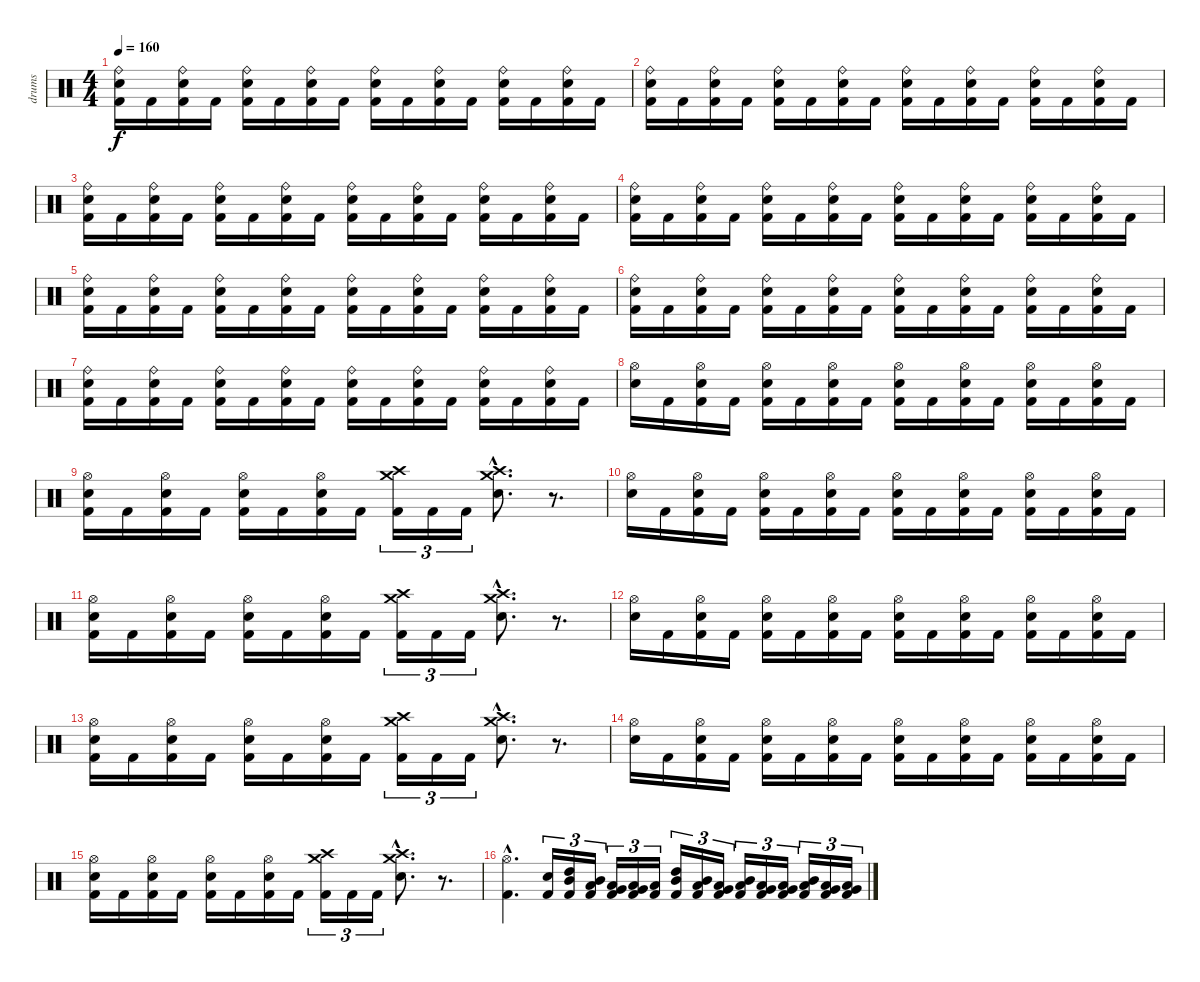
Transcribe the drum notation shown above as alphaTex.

\track ("drums" "drums") {instrument percussion}
\staff {score}
\articulation defaults
\ts (4 4)
\tempo 160
\clef neutral
\ks c
("Ride (bell)" "Snare (hit) 2" "Kick (hit) 2").16{dy f} "Kick (hit) 2".16 ("Ride (bell)" "Snare (hit) 2" "Kick (hit) 2").16 "Kick (hit) 2".16 ("Ride (bell)" "Snare (hit) 2" "Kick (hit) 2").16 "Kick (hit) 2".16 ("Ride (bell)" "Snare (hit) 2" "Kick (hit) 2").16 "Kick (hit) 2".16 ("Ride (bell)" "Snare (hit) 2" "Kick (hit) 2").16 "Kick (hit) 2".16 ("Ride (bell)" "Snare (hit) 2" "Kick (hit) 2").16 "Kick (hit) 2".16 ("Ride (bell)" "Snare (hit) 2" "Kick (hit) 2").16 "Kick (hit) 2".16 ("Ride (bell)" "Snare (hit) 2" "Kick (hit) 2").16 "Kick (hit) 2".16 |
("Ride (bell)" "Snare (hit) 2" "Kick (hit) 2").16 "Kick (hit) 2".16 ("Ride (bell)" "Snare (hit) 2" "Kick (hit) 2").16 "Kick (hit) 2".16 ("Ride (bell)" "Snare (hit) 2" "Kick (hit) 2").16 "Kick (hit) 2".16 ("Ride (bell)" "Snare (hit) 2" "Kick (hit) 2").16 "Kick (hit) 2".16 ("Ride (bell)" "Snare (hit) 2" "Kick (hit) 2").16 "Kick (hit) 2".16 ("Ride (bell)" "Snare (hit) 2" "Kick (hit) 2").16 "Kick (hit) 2".16 ("Ride (bell)" "Snare (hit) 2" "Kick (hit) 2").16 "Kick (hit) 2".16 ("Ride (bell)" "Snare (hit) 2" "Kick (hit) 2").16 "Kick (hit) 2".16 |
("Ride (bell)" "Snare (hit) 2" "Kick (hit) 2").16 "Kick (hit) 2".16 ("Ride (bell)" "Snare (hit) 2" "Kick (hit) 2").16 "Kick (hit) 2".16 ("Ride (bell)" "Snare (hit) 2" "Kick (hit) 2").16 "Kick (hit) 2".16 ("Ride (bell)" "Snare (hit) 2" "Kick (hit) 2").16 "Kick (hit) 2".16 ("Ride (bell)" "Snare (hit) 2" "Kick (hit) 2").16 "Kick (hit) 2".16 ("Ride (bell)" "Snare (hit) 2" "Kick (hit) 2").16 "Kick (hit) 2".16 ("Ride (bell)" "Snare (hit) 2" "Kick (hit) 2").16 "Kick (hit) 2".16 ("Ride (bell)" "Snare (hit) 2" "Kick (hit) 2").16 "Kick (hit) 2".16 |
("Ride (bell)" "Snare (hit) 2" "Kick (hit) 2").16 "Kick (hit) 2".16 ("Ride (bell)" "Snare (hit) 2" "Kick (hit) 2").16 "Kick (hit) 2".16 ("Ride (bell)" "Snare (hit) 2" "Kick (hit) 2").16 "Kick (hit) 2".16 ("Ride (bell)" "Snare (hit) 2" "Kick (hit) 2").16 "Kick (hit) 2".16 ("Ride (bell)" "Snare (hit) 2" "Kick (hit) 2").16 "Kick (hit) 2".16 ("Ride (bell)" "Snare (hit) 2" "Kick (hit) 2").16 "Kick (hit) 2".16 ("Ride (bell)" "Snare (hit) 2" "Kick (hit) 2").16 "Kick (hit) 2".16 ("Ride (bell)" "Snare (hit) 2" "Kick (hit) 2").16 "Kick (hit) 2".16 |
("Ride (bell)" "Snare (hit) 2" "Kick (hit) 2").16 "Kick (hit) 2".16 ("Ride (bell)" "Snare (hit) 2" "Kick (hit) 2").16 "Kick (hit) 2".16 ("Ride (bell)" "Snare (hit) 2" "Kick (hit) 2").16 "Kick (hit) 2".16 ("Ride (bell)" "Snare (hit) 2" "Kick (hit) 2").16 "Kick (hit) 2".16 ("Ride (bell)" "Snare (hit) 2" "Kick (hit) 2").16 "Kick (hit) 2".16 ("Ride (bell)" "Snare (hit) 2" "Kick (hit) 2").16 "Kick (hit) 2".16 ("Ride (bell)" "Snare (hit) 2" "Kick (hit) 2").16 "Kick (hit) 2".16 ("Ride (bell)" "Snare (hit) 2" "Kick (hit) 2").16 "Kick (hit) 2".16 |
("Ride (bell)" "Snare (hit) 2" "Kick (hit) 2").16 "Kick (hit) 2".16 ("Ride (bell)" "Snare (hit) 2" "Kick (hit) 2").16 "Kick (hit) 2".16 ("Ride (bell)" "Snare (hit) 2" "Kick (hit) 2").16 "Kick (hit) 2".16 ("Ride (bell)" "Snare (hit) 2" "Kick (hit) 2").16 "Kick (hit) 2".16 ("Ride (bell)" "Snare (hit) 2" "Kick (hit) 2").16 "Kick (hit) 2".16 ("Ride (bell)" "Snare (hit) 2" "Kick (hit) 2").16 "Kick (hit) 2".16 ("Ride (bell)" "Snare (hit) 2" "Kick (hit) 2").16 "Kick (hit) 2".16 ("Ride (bell)" "Snare (hit) 2" "Kick (hit) 2").16 "Kick (hit) 2".16 |
("Ride (bell)" "Snare (hit) 2" "Kick (hit) 2").16 "Kick (hit) 2".16 ("Ride (bell)" "Snare (hit) 2" "Kick (hit) 2").16 "Kick (hit) 2".16 ("Ride (bell)" "Snare (hit) 2" "Kick (hit) 2").16 "Kick (hit) 2".16 ("Ride (bell)" "Snare (hit) 2" "Kick (hit) 2").16 "Kick (hit) 2".16 ("Ride (bell)" "Snare (hit) 2" "Kick (hit) 2").16 "Kick (hit) 2".16 ("Ride (bell)" "Snare (hit) 2" "Kick (hit) 2").16 "Kick (hit) 2".16 ("Ride (bell)" "Snare (hit) 2" "Kick (hit) 2").16 "Kick (hit) 2".16 ("Ride (bell)" "Snare (hit) 2" "Kick (hit) 2").16 "Kick (hit) 2".16 |
("Hi-Hat (open)" "Snare (hit) 2").16 "Kick (hit) 2".16 ("Hi-Hat (open)" "Snare (hit) 2" "Kick (hit) 2").16 "Kick (hit) 2".16 ("Hi-Hat (open)" "Snare (hit) 2" "Kick (hit) 2").16 "Kick (hit) 2".16 ("Hi-Hat (open)" "Snare (hit) 2" "Kick (hit) 2").16 "Kick (hit) 2".16 ("Hi-Hat (open)" "Snare (hit) 2" "Kick (hit) 2").16 "Kick (hit) 2".16 ("Hi-Hat (open)" "Snare (hit) 2" "Kick (hit) 2").16 "Kick (hit) 2".16 ("Hi-Hat (open)" "Snare (hit) 2" "Kick (hit) 2").16 "Kick (hit) 2".16 ("Hi-Hat (open)" "Snare (hit) 2" "Kick (hit) 2").16 "Kick (hit) 2".16 |
("Hi-Hat (open)" "Snare (hit) 2" "Kick (hit) 2").16 "Kick (hit) 2".16 ("Hi-Hat (open)" "Snare (hit) 2" "Kick (hit) 2").16 "Kick (hit) 2".16 ("Hi-Hat (open)" "Snare (hit) 2" "Kick (hit) 2").16 "Kick (hit) 2".16 ("Hi-Hat (open)" "Snare (hit) 2" "Kick (hit) 2").16 "Kick (hit) 2".16 ("Crash medium (hit)" "Crash high (hit)" "Kick (hit) 2").16{tu (3 2)} "Kick (hit) 2".16{tu (3 2)} "Kick (hit) 2".16{tu (3 2)} ("Crash medium (hit)"{hac} "Crash high (hit)"{hac} "Snare (hit) 2"{hac}).8{d} r.8{d} |
("Hi-Hat (open)" "Snare (hit) 2").16 "Kick (hit) 2".16 ("Hi-Hat (open)" "Snare (hit) 2" "Kick (hit) 2").16 "Kick (hit) 2".16 ("Hi-Hat (open)" "Snare (hit) 2" "Kick (hit) 2").16 "Kick (hit) 2".16 ("Hi-Hat (open)" "Snare (hit) 2" "Kick (hit) 2").16 "Kick (hit) 2".16 ("Hi-Hat (open)" "Snare (hit) 2" "Kick (hit) 2").16 "Kick (hit) 2".16 ("Hi-Hat (open)" "Snare (hit) 2" "Kick (hit) 2").16 "Kick (hit) 2".16 ("Hi-Hat (open)" "Snare (hit) 2" "Kick (hit) 2").16 "Kick (hit) 2".16 ("Hi-Hat (open)" "Snare (hit) 2" "Kick (hit) 2").16 "Kick (hit) 2".16 |
("Hi-Hat (open)" "Snare (hit) 2" "Kick (hit) 2").16 "Kick (hit) 2".16 ("Hi-Hat (open)" "Snare (hit) 2" "Kick (hit) 2").16 "Kick (hit) 2".16 ("Hi-Hat (open)" "Snare (hit) 2" "Kick (hit) 2").16 "Kick (hit) 2".16 ("Hi-Hat (open)" "Snare (hit) 2" "Kick (hit) 2").16 "Kick (hit) 2".16 ("Crash medium (hit)" "Crash high (hit)" "Kick (hit) 2").16{tu (3 2)} "Kick (hit) 2".16{tu (3 2)} "Kick (hit) 2".16{tu (3 2)} ("Crash medium (hit)"{hac} "Crash high (hit)"{hac} "Snare (hit) 2"{hac}).8{d} r.8{d} |
("Hi-Hat (open)" "Snare (hit) 2").16 "Kick (hit) 2".16 ("Hi-Hat (open)" "Snare (hit) 2" "Kick (hit) 2").16 "Kick (hit) 2".16 ("Hi-Hat (open)" "Snare (hit) 2" "Kick (hit) 2").16 "Kick (hit) 2".16 ("Hi-Hat (open)" "Snare (hit) 2" "Kick (hit) 2").16 "Kick (hit) 2".16 ("Hi-Hat (open)" "Snare (hit) 2" "Kick (hit) 2").16 "Kick (hit) 2".16 ("Hi-Hat (open)" "Snare (hit) 2" "Kick (hit) 2").16 "Kick (hit) 2".16 ("Hi-Hat (open)" "Snare (hit) 2" "Kick (hit) 2").16 "Kick (hit) 2".16 ("Hi-Hat (open)" "Snare (hit) 2" "Kick (hit) 2").16 "Kick (hit) 2".16 |
("Hi-Hat (open)" "Snare (hit) 2" "Kick (hit) 2").16 "Kick (hit) 2".16 ("Hi-Hat (open)" "Snare (hit) 2" "Kick (hit) 2").16 "Kick (hit) 2".16 ("Hi-Hat (open)" "Snare (hit) 2" "Kick (hit) 2").16 "Kick (hit) 2".16 ("Hi-Hat (open)" "Snare (hit) 2" "Kick (hit) 2").16 "Kick (hit) 2".16 ("Crash medium (hit)" "Crash high (hit)" "Kick (hit) 2").16{tu (3 2)} "Kick (hit) 2".16{tu (3 2)} "Kick (hit) 2".16{tu (3 2)} ("Crash medium (hit)"{hac} "Crash high (hit)"{hac} "Snare (hit) 2"{hac}).8{d} r.8{d} |
("Hi-Hat (open)" "Snare (hit) 2").16 "Kick (hit) 2".16 ("Hi-Hat (open)" "Snare (hit) 2" "Kick (hit) 2").16 "Kick (hit) 2".16 ("Hi-Hat (open)" "Snare (hit) 2" "Kick (hit) 2").16 "Kick (hit) 2".16 ("Hi-Hat (open)" "Snare (hit) 2" "Kick (hit) 2").16 "Kick (hit) 2".16 ("Hi-Hat (open)" "Snare (hit) 2" "Kick (hit) 2").16 "Kick (hit) 2".16 ("Hi-Hat (open)" "Snare (hit) 2" "Kick (hit) 2").16 "Kick (hit) 2".16 ("Hi-Hat (open)" "Snare (hit) 2" "Kick (hit) 2").16 "Kick (hit) 2".16 ("Hi-Hat (open)" "Snare (hit) 2" "Kick (hit) 2").16 "Kick (hit) 2".16 |
("Hi-Hat (open)" "Snare (hit) 2" "Kick (hit) 2").16 "Kick (hit) 2".16 ("Hi-Hat (open)" "Snare (hit) 2" "Kick (hit) 2").16 "Kick (hit) 2".16 ("Hi-Hat (open)" "Snare (hit) 2" "Kick (hit) 2").16 "Kick (hit) 2".16 ("Hi-Hat (open)" "Snare (hit) 2" "Kick (hit) 2").16 "Kick (hit) 2".16 ("Crash medium (hit)" "Crash high (hit)" "Kick (hit) 2").16{tu (3 2)} "Kick (hit) 2".16{tu (3 2)} "Kick (hit) 2".16{tu (3 2)} ("Crash medium (hit)"{hac} "Crash high (hit)"{hac} "Snare (hit) 2"{hac}).8{d} r.8{d} |
("Hi-Hat (open)"{hac} "Kick (hit) 2"{hac}).4{d} ("Snare (hit) 2" "Kick (hit) 2").16{tu (3 2)} ("High Tom (hit)" "Mid Tom (hit)" "Kick (hit) 2").16{tu (3 2)} ("Mid Tom (hit)" "Low Tom (hit)" "Kick (hit) 2").16{tu (3 2)} ("Low Tom (hit)" "Very Low Tom (hit)" "Kick (hit) 2").16{tu (3 2)} ("Very Low Tom (hit)" "Low Floor Tom (hit)" "Kick (hit) 2").16{tu (3 2)} ("Low Floor Tom (hit)" "Kick (hit) 2").16{tu (3 2)} ("High Tom (hit)" "Mid Tom (hit)" "Kick (hit) 2").16{tu (3 2)} ("Mid Tom (hit)" "Low Tom (hit)" "Kick (hit) 2").16{tu (3 2)} ("Low Tom (hit)" "Very Low Tom (hit)" "Kick (hit) 2").16{tu (3 2)} ("Mid Tom (hit)" "Low Tom (hit)" "Kick (hit) 2").16{tu (3 2)} ("Low Tom (hit)" "Very Low Tom (hit)" "Kick (hit) 2").16{tu (3 2)} ("Very Low Tom (hit)" "Low Floor Tom (hit)" "Kick (hit) 2").16{tu (3 2)} ("Low Tom (hit)" "Mid Tom (hit)" "Kick (hit) 2").16{tu (3 2)} ("Very Low Tom (hit)" "Low Tom (hit)" "Kick (hit) 2").16{tu (3 2)} ("Low Floor Tom (hit)" "Very Low Tom (hit)" "Kick (hit) 2").16{tu (3 2)}
